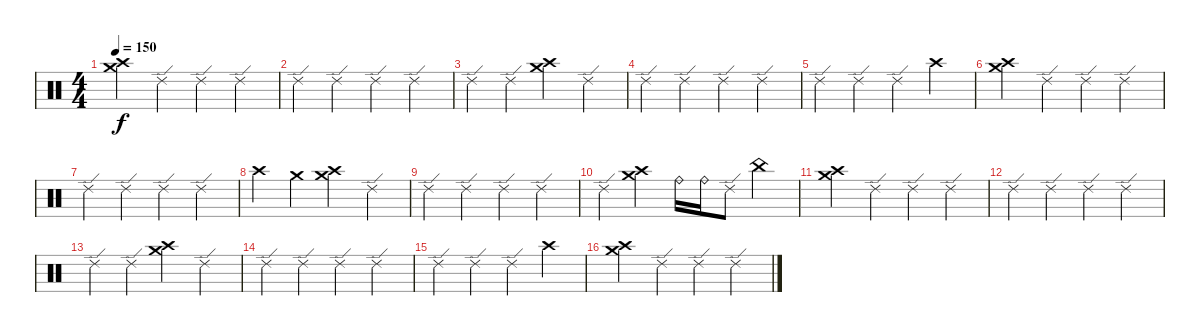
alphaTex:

\track "" {instrument percussion}
\staff {score}
\articulation defaults
\ts (4 4)
\tempo 150
\clef neutral
\ks c
("Crash medium (hit)" "Crash high (hit)").4{dy f} "Ride (edge) 2".4 "Ride (edge) 2".4 "Ride (edge) 2".4 |
"Ride (edge) 2".4 "Ride (edge) 2".4 "Ride (edge) 2".4 "Ride (edge) 2".4 |
"Ride (edge) 2".4 "Ride (edge) 2".4 ("Crash medium (hit)" "Crash high (hit)").4 "Ride (edge) 2".4 |
"Ride (edge) 2".4 "Ride (edge) 2".4 "Ride (edge) 2".4 "Ride (edge) 2".4 |
"Ride (edge) 2".4 "Ride (edge) 2".4 "Ride (edge) 2".4 "Crash high (hit)".4 |
("Crash medium (hit)" "Crash high (hit)").4 "Ride (edge) 2".4 "Ride (edge) 2".4 "Ride (edge) 2".4 |
"Ride (edge) 2".4 "Ride (edge) 2".4 "Ride (edge) 2".4 "Ride (edge) 2".4 |
"Crash high (hit)".4 "Crash medium (hit)".4 ("Crash medium (hit)" "Crash high (hit)").4 "Ride (edge) 2".4 |
"Ride (edge) 2".4 "Ride (edge) 2".4 "Ride (edge) 2".4 "Ride (edge) 2".4 |
"Ride (edge) 2".4 ("Crash medium (hit)" "Crash high (hit)").4 "Ride (bell)".16 "Ride (bell)".16 "Ride (edge) 2".8 "China (hit)".4 |
("Crash medium (hit)" "Crash high (hit)").4 "Ride (edge) 2".4 "Ride (edge) 2".4 "Ride (edge) 2".4 |
"Ride (edge) 2".4 "Ride (edge) 2".4 "Ride (edge) 2".4 "Ride (edge) 2".4 |
"Ride (edge) 2".4 "Ride (edge) 2".4 ("Crash medium (hit)" "Crash high (hit)").4 "Ride (edge) 2".4 |
"Ride (edge) 2".4 "Ride (edge) 2".4 "Ride (edge) 2".4 "Ride (edge) 2".4 |
"Ride (edge) 2".4 "Ride (edge) 2".4 "Ride (edge) 2".4 "Crash high (hit)".4 |
("Crash medium (hit)" "Crash high (hit)").4 "Ride (edge) 2".4 "Ride (edge) 2".4 "Ride (edge) 2".4
